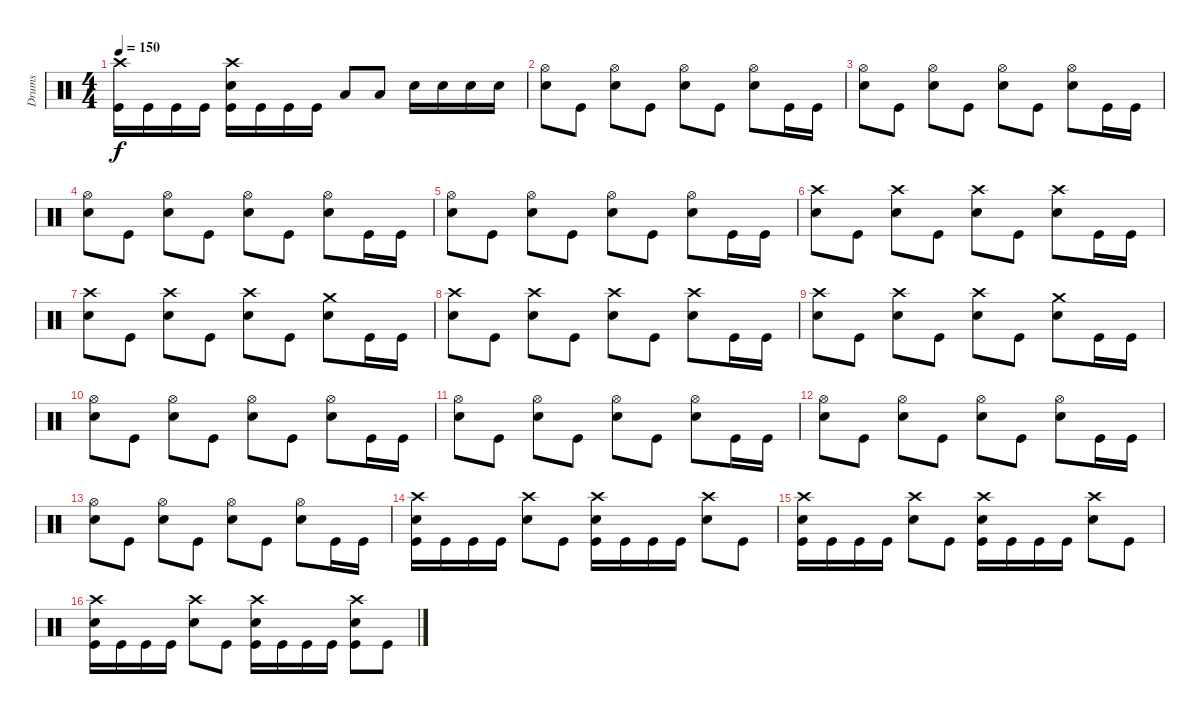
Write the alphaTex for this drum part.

\track ("Drums" "Drums") {instrument percussion}
\staff {score}
\articulation defaults
\ts (4 4)
\tempo 150
\clef neutral
\ks c
("Crash high (hit)" "Kick (hit)").16{dy f} "Kick (hit)".16 "Kick (hit)".16 "Kick (hit)".16 ("Crash high (hit)" "Electric Snare (hit)" "Kick (hit)").16 "Kick (hit)".16 "Kick (hit)".16 "Kick (hit)".16 "Low Tom (hit)".8 "Low Tom (hit)".8 "Electric Snare (hit)".16 "Electric Snare (hit)".16 "Electric Snare (hit)".16 "Electric Snare (hit)".16 |
("Hi-Hat (open)" "Electric Snare (hit)").8 "Kick (hit)".8 ("Hi-Hat (open)" "Electric Snare (hit)").8 "Kick (hit)".8 ("Hi-Hat (open)" "Electric Snare (hit)").8 "Kick (hit)".8 ("Hi-Hat (open)" "Electric Snare (hit)").8 "Kick (hit)".16 "Kick (hit)".16 |
("Hi-Hat (open)" "Electric Snare (hit)").8 "Kick (hit)".8 ("Hi-Hat (open)" "Electric Snare (hit)").8 "Kick (hit)".8 ("Hi-Hat (open)" "Electric Snare (hit)").8 "Kick (hit)".8 ("Hi-Hat (open)" "Electric Snare (hit)").8 "Kick (hit)".16 "Kick (hit)".16 |
("Hi-Hat (open)" "Electric Snare (hit)").8 "Kick (hit)".8 ("Hi-Hat (open)" "Electric Snare (hit)").8 "Kick (hit)".8 ("Hi-Hat (open)" "Electric Snare (hit)").8 "Kick (hit)".8 ("Hi-Hat (open)" "Electric Snare (hit)").8 "Kick (hit)".16 "Kick (hit)".16 |
("Hi-Hat (open)" "Electric Snare (hit)").8 "Kick (hit)".8 ("Hi-Hat (open)" "Electric Snare (hit)").8 "Kick (hit)".8 ("Hi-Hat (open)" "Electric Snare (hit)").8 "Kick (hit)".8 ("Hi-Hat (open)" "Electric Snare (hit)").8 "Kick (hit)".16 "Kick (hit)".16 |
("Crash high (hit)" "Electric Snare (hit)").8 "Kick (hit)".8 ("Crash high (hit)" "Electric Snare (hit)").8 "Kick (hit)".8 ("Crash high (hit)" "Electric Snare (hit)").8 "Kick (hit)".8 ("Crash high (hit)" "Electric Snare (hit)").8 "Kick (hit)".16 "Kick (hit)".16 |
("Crash high (hit)" "Electric Snare (hit)").8 "Kick (hit)".8 ("Crash high (hit)" "Electric Snare (hit)").8 "Kick (hit)".8 ("Crash high (hit)" "Electric Snare (hit)").8 "Kick (hit)".8 ("Crash medium (hit)" "Electric Snare (hit)").8 "Kick (hit)".16 "Kick (hit)".16 |
("Crash high (hit)" "Electric Snare (hit)").8 "Kick (hit)".8 ("Crash high (hit)" "Electric Snare (hit)").8 "Kick (hit)".8 ("Crash high (hit)" "Electric Snare (hit)").8 "Kick (hit)".8 ("Crash high (hit)" "Electric Snare (hit)").8 "Kick (hit)".16 "Kick (hit)".16 |
("Crash high (hit)" "Electric Snare (hit)").8 "Kick (hit)".8 ("Crash high (hit)" "Electric Snare (hit)").8 "Kick (hit)".8 ("Crash high (hit)" "Electric Snare (hit)").8 "Kick (hit)".8 ("Crash medium (hit)" "Electric Snare (hit)").8 "Kick (hit)".16 "Kick (hit)".16 |
("Hi-Hat (open)" "Electric Snare (hit)").8 "Kick (hit)".8 ("Hi-Hat (open)" "Electric Snare (hit)").8 "Kick (hit)".8 ("Hi-Hat (open)" "Electric Snare (hit)").8 "Kick (hit)".8 ("Hi-Hat (open)" "Electric Snare (hit)").8 "Kick (hit)".16 "Kick (hit)".16 |
("Hi-Hat (open)" "Electric Snare (hit)").8 "Kick (hit)".8 ("Hi-Hat (open)" "Electric Snare (hit)").8 "Kick (hit)".8 ("Hi-Hat (open)" "Electric Snare (hit)").8 "Kick (hit)".8 ("Hi-Hat (open)" "Electric Snare (hit)").8 "Kick (hit)".16 "Kick (hit)".16 |
("Hi-Hat (open)" "Electric Snare (hit)").8 "Kick (hit)".8 ("Hi-Hat (open)" "Electric Snare (hit)").8 "Kick (hit)".8 ("Hi-Hat (open)" "Electric Snare (hit)").8 "Kick (hit)".8 ("Hi-Hat (open)" "Electric Snare (hit)").8 "Kick (hit)".16 "Kick (hit)".16 |
("Hi-Hat (open)" "Electric Snare (hit)").8 "Kick (hit)".8 ("Hi-Hat (open)" "Electric Snare (hit)").8 "Kick (hit)".8 ("Hi-Hat (open)" "Electric Snare (hit)").8 "Kick (hit)".8 ("Hi-Hat (open)" "Electric Snare (hit)").8 "Kick (hit)".16 "Kick (hit)".16 |
("Crash high (hit)" "Electric Snare (hit)" "Kick (hit)").16 "Kick (hit)".16 "Kick (hit)".16 "Kick (hit)".16 ("Crash high (hit)" "Electric Snare (hit)").8 "Kick (hit)".8 ("Crash high (hit)" "Electric Snare (hit)" "Kick (hit)").16 "Kick (hit)".16 "Kick (hit)".16 "Kick (hit)".16 ("Crash high (hit)" "Electric Snare (hit)").8 "Kick (hit)".8 |
("Crash high (hit)" "Electric Snare (hit)" "Kick (hit)").16 "Kick (hit)".16 "Kick (hit)".16 "Kick (hit)".16 ("Crash high (hit)" "Electric Snare (hit)").8 "Kick (hit)".8 ("Crash high (hit)" "Electric Snare (hit)" "Kick (hit)").16 "Kick (hit)".16 "Kick (hit)".16 "Kick (hit)".16 ("Crash high (hit)" "Electric Snare (hit)").8 "Kick (hit)".8 |
("Crash high (hit)" "Electric Snare (hit)" "Kick (hit)").16 "Kick (hit)".16 "Kick (hit)".16 "Kick (hit)".16 ("Crash high (hit)" "Electric Snare (hit)").8 "Kick (hit)".8 ("Crash high (hit)" "Electric Snare (hit)" "Kick (hit)").16 "Kick (hit)".16 "Kick (hit)".16 "Kick (hit)".16 ("Crash high (hit)" "Electric Snare (hit)" "Kick (hit)").8 "Kick (hit)".8
